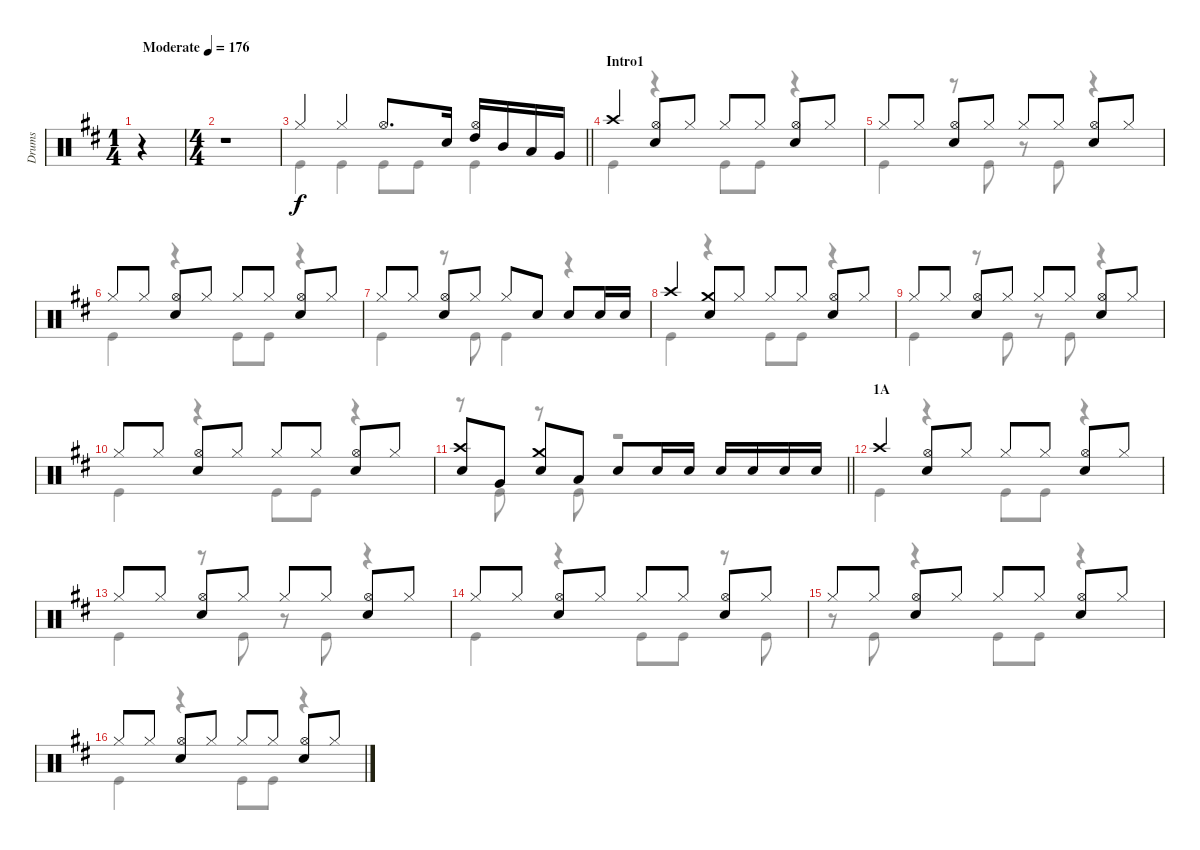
\track ("Drums" "Drums") {instrument percussion}
\staff {score}
\articulation defaults
\voice
\ts (1 4)
\tempo (176 "Moderate")
\clef neutral
\ks d
r.4{dy f} |
\ts (4 4)
r.1 |
\barLineRight lightlight "Hi-Hat (closed)".4 "Hi-Hat (closed)".4 "Hi-Hat (open)".8{d} "Snare (hit) 2".16
("Hi-Hat (open)" "High Tom (hit)").16 "Mid Tom (hit)".16 "Low Tom (hit)".16 "Very Low Tom (hit)".16 |
\section ("" "Intro1")
"Crash high (hit)".4 ("Hi-Hat (open)" "Snare (hit) 2").8 "Hi-Hat (closed)".8 "Hi-Hat (closed)".8 "Hi-Hat (closed)".8 ("Hi-Hat (open)" "Snare (hit) 2").8 "Hi-Hat (closed)".8 |
"Hi-Hat (closed)".8 "Hi-Hat (closed)".8 ("Hi-Hat (open)" "Snare (hit) 2").8 "Hi-Hat (closed)".8 "Hi-Hat (closed)".8 "Hi-Hat (closed)".8 ("Hi-Hat (open)" "Snare (hit) 2").8 "Hi-Hat (closed)".8 |
"Hi-Hat (closed)".8 "Hi-Hat (closed)".8 ("Hi-Hat (open)" "Snare (hit) 2").8 "Hi-Hat (closed)".8 "Hi-Hat (closed)".8 "Hi-Hat (closed)".8 ("Hi-Hat (open)" "Snare (hit) 2").8 "Hi-Hat (closed)".8 |
"Hi-Hat (closed)".8 "Hi-Hat (closed)".8 ("Hi-Hat (open)" "Snare (hit) 2").8 "Hi-Hat (closed)".8 "Hi-Hat (closed)".8 "Snare (hit) 2".8 "Snare (hit) 2".8 "Snare (hit) 2".16 "Snare (hit) 2".16 |
"Crash high (hit)".4 ("Crash medium (hit)" "Snare (hit) 2").8 "Hi-Hat (closed)".8 "Hi-Hat (closed)".8 "Hi-Hat (closed)".8 ("Hi-Hat (open)" "Snare (hit) 2").8 "Hi-Hat (closed)".8 |
"Hi-Hat (closed)".8 "Hi-Hat (closed)".8 ("Hi-Hat (open)" "Snare (hit) 2").8 "Hi-Hat (closed)".8 "Hi-Hat (closed)".8 "Hi-Hat (closed)".8 ("Hi-Hat (open)" "Snare (hit) 2").8 "Hi-Hat (closed)".8 |
"Hi-Hat (closed)".8 "Hi-Hat (closed)".8 ("Hi-Hat (open)" "Snare (hit) 2").8 "Hi-Hat (closed)".8 "Hi-Hat (closed)".8 "Hi-Hat (closed)".8 ("Hi-Hat (open)" "Snare (hit) 2").8 "Hi-Hat (closed)".8 |
\barLineRight lightlight
("Crash high (hit)" "Snare (hit) 2").8 "Very Low Tom (hit)".8 ("Crash medium (hit)" "Snare (hit) 2").8 "Low Tom (hit)".8 "Snare (hit) 2".8 "Snare (hit) 2".16 "Snare (hit) 2".16 "Snare (hit) 2".16 "Snare (hit) 2".16 "Snare (hit) 2".16 "Snare (hit) 2".16 |
\section ("" "1A")
"Crash high (hit)".4 ("Hi-Hat (open)" "Snare (hit) 2").8 "Hi-Hat (closed)".8 "Hi-Hat (closed)".8 "Hi-Hat (closed)".8 ("Hi-Hat (open)" "Snare (hit) 2").8 "Hi-Hat (closed)".8 |
"Hi-Hat (closed)".8 "Hi-Hat (closed)".8 ("Hi-Hat (open)" "Snare (hit) 2").8 "Hi-Hat (closed)".8 "Hi-Hat (closed)".8 "Hi-Hat (closed)".8 ("Hi-Hat (open)" "Snare (hit) 2").8 "Hi-Hat (closed)".8 |
"Hi-Hat (closed)".8 "Hi-Hat (closed)".8 ("Hi-Hat (open)" "Snare (hit) 2").8 "Hi-Hat (closed)".8 "Hi-Hat (closed)".8 "Hi-Hat (closed)".8 ("Hi-Hat (open)" "Snare (hit) 2").8 "Hi-Hat (closed)".8 |
"Hi-Hat (closed)".8 "Hi-Hat (closed)".8 ("Hi-Hat (open)" "Snare (hit) 2").8 "Hi-Hat (closed)".8 "Hi-Hat (closed)".8 "Hi-Hat (closed)".8 ("Hi-Hat (open)" "Snare (hit) 2").8 "Hi-Hat (closed)".8 |
"Hi-Hat (closed)".8 "Hi-Hat (closed)".8 ("Hi-Hat (open)" "Snare (hit) 2").8 "Hi-Hat (closed)".8 "Hi-Hat (closed)".8 "Hi-Hat (closed)".8 ("Hi-Hat (open)" "Snare (hit) 2").8 "Hi-Hat (closed)".8
\voice
\clef neutral
\ottava regular
\simile none
\ks d
r.4{dy f} |
r.1 |
\barLineRight lightlight "Kick (hit)".4 "Kick (hit)".4 "Kick (hit)".8 "Kick (hit)".8 "Kick (hit)".4
|
"Kick (hit)".4 r.4 "Kick (hit)".8 "Kick (hit)".8 r.4 |
"Kick (hit)".4 r.8 "Kick (hit)".8 r.8 "Kick (hit)".8 r.4 |
"Kick (hit)".4 r.4 "Kick (hit)".8 "Kick (hit)".8 r.4 |
"Kick (hit)".4 r.8 "Kick (hit)".8 "Kick (hit)".4 r.4 |
"Kick (hit)".4 r.4 "Kick (hit)".8 "Kick (hit)".8 r.4 |
"Kick (hit)".4 r.8 "Kick (hit)".8 r.8 "Kick (hit)".8 r.4 |
"Kick (hit)".4 r.4 "Kick (hit)".8 "Kick (hit)".8 r.4 |
\barLineRight lightlight
r.8 "Kick (hit)".8 r.8 "Kick (hit)".8 r.2 |
"Kick (hit)".4 r.4 "Kick (hit)".8 "Kick (hit)".8 r.4 |
"Kick (hit)".4 r.8 "Kick (hit)".8 r.8 "Kick (hit)".8 r.4 |
"Kick (hit)".4 r.4 "Kick (hit)".8 "Kick (hit)".8 r.8 "Kick (hit)".8 |
r.8 "Kick (hit)".8 r.4 "Kick (hit)".8 "Kick (hit)".8 r.4 |
"Kick (hit)".4 r.4 "Kick (hit)".8 "Kick (hit)".8 r.4
